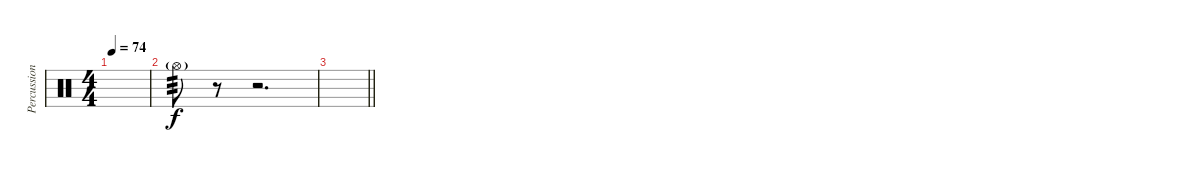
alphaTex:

\track ("Percussion" "Percussion") {instrument percussion}
\staff {score}
\articulation defaults
\ts (4 4)
\tempo 74
\clef neutral
\ks c
|
"Hi-Hat (open)"{g}.8{tp 3} r.8 r.2{d} |
\barLineRight lightlight
